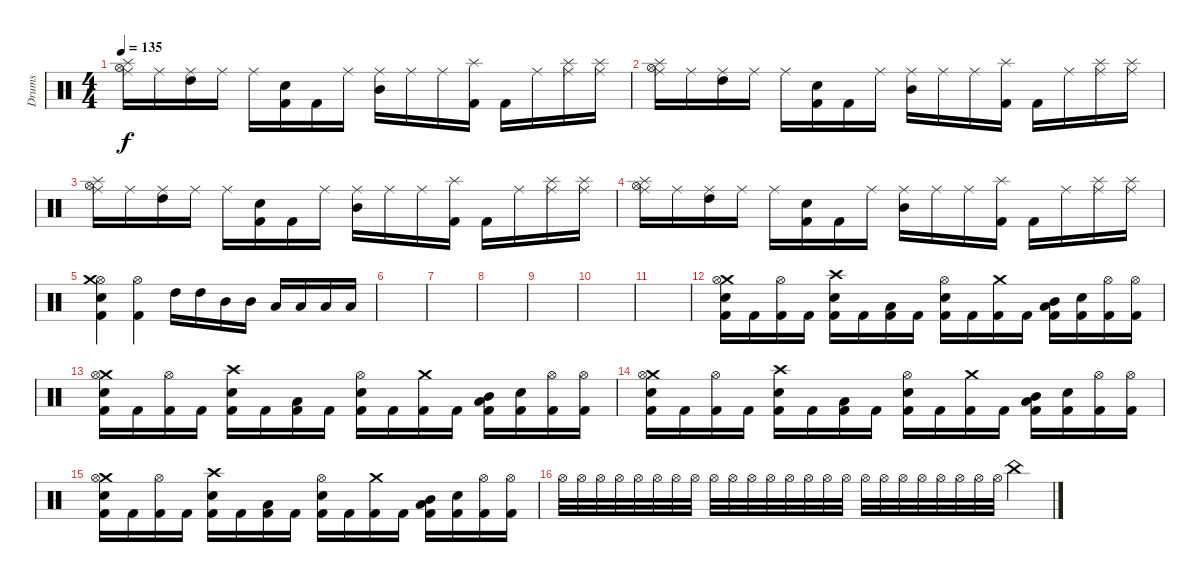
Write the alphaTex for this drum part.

\track ("Drums" "Drums") {instrument percussion}
\staff {score}
\articulation defaults
\ts (4 4)
\tempo 135
\clef neutral
\ks c
("Ride (middle)" "Hi-Hat (open)" "Splash (hit)").16{dy f} "Ride (middle)".16 ("Ride (middle)" "High Tom (hit)").16 "Ride (middle)".16 "Ride (middle)".16 ("Kick (hit) 2" "Electric Snare (hit)").16 "Kick (hit) 2".16 "Ride (middle)".16 ("Ride (middle)" "Mid Tom (hit)").16 "Ride (middle)".16 "Ride (middle)".16 ("Kick (hit) 2" "Splash (hit)").16 "Kick (hit) 2".16 "Ride (middle)".16 ("Ride (middle)" "Splash (hit)").16 ("Ride (middle)" "Splash (hit)").16 |
("Ride (middle)" "Hi-Hat (open)" "Splash (hit)").16 "Ride (middle)".16 ("Ride (middle)" "High Tom (hit)").16 "Ride (middle)".16 "Ride (middle)".16 ("Kick (hit) 2" "Electric Snare (hit)").16 "Kick (hit) 2".16 "Ride (middle)".16 ("Ride (middle)" "Mid Tom (hit)").16 "Ride (middle)".16 "Ride (middle)".16 ("Kick (hit) 2" "Splash (hit)").16 "Kick (hit) 2".16 "Ride (middle)".16 ("Ride (middle)" "Splash (hit)").16 ("Ride (middle)" "Splash (hit)").16 |
("Ride (middle)" "Hi-Hat (open)" "Splash (hit)").16 "Ride (middle)".16 ("Ride (middle)" "High Tom (hit)").16 "Ride (middle)".16 "Ride (middle)".16 ("Kick (hit) 2" "Electric Snare (hit)").16 "Kick (hit) 2".16 "Ride (middle)".16 ("Ride (middle)" "Mid Tom (hit)").16 "Ride (middle)".16 "Ride (middle)".16 ("Kick (hit) 2" "Splash (hit)").16 "Kick (hit) 2".16 "Ride (middle)".16 ("Ride (middle)" "Splash (hit)").16 ("Ride (middle)" "Splash (hit)").16 |
("Ride (middle)" "Hi-Hat (open)" "Splash (hit)").16 "Ride (middle)".16 ("Ride (middle)" "High Tom (hit)").16 "Ride (middle)".16 "Ride (middle)".16 ("Kick (hit) 2" "Electric Snare (hit)").16 "Kick (hit) 2".16 "Ride (middle)".16 ("Ride (middle)" "Mid Tom (hit)").16 "Ride (middle)".16 "Ride (middle)".16 ("Kick (hit) 2" "Splash (hit)").16 "Kick (hit) 2".16 "Ride (middle)".16 ("Ride (middle)" "Splash (hit)").16 ("Ride (middle)" "Splash (hit)").16 |
("Electric Snare (hit)" "Hi-Hat (open)" "Crash medium (hit)" "Kick (hit) 2").4 ("Kick (hit) 2" "Hi-Hat (open)").4 "High Tom (hit)".16 "High Tom (hit)".16 "Mid Tom (hit)".16 "Mid Tom (hit)".16 "Low Tom (hit)".16 "Low Tom (hit)".16 "Low Floor Tom (hit)".16 "Low Floor Tom (hit)".16 |
|
|
|
|
|
|
("Kick (hit) 2" "Crash medium (hit)" "Hi-Hat (open)" "Electric Snare (hit)").16 "Kick (hit) 2".16 ("Kick (hit) 2" "Hi-Hat (open)").16 "Kick (hit) 2".16 ("Kick (hit) 2" "Crash high (hit)" "Electric Snare (hit)").16 "Kick (hit) 2".16 ("Kick (hit) 2" "Low Floor Tom (hit)").16 "Kick (hit) 2".16 ("Kick (hit) 2" "Hi-Hat (open)" "Electric Snare (hit)").16 "Kick (hit) 2".16 ("Kick (hit) 2" "Crash medium (hit)").16 "Kick (hit) 2".16 ("Kick (hit) 2" "Low Floor Tom (hit)" "Mid Tom (hit)").16 ("Kick (hit) 2" "Electric Snare (hit)").16 ("Kick (hit) 2" "Hi-Hat (open)").16 ("Kick (hit) 2" "Hi-Hat (open)").16 |
("Kick (hit) 2" "Crash medium (hit)" "Hi-Hat (open)" "Electric Snare (hit)").16 "Kick (hit) 2".16 ("Kick (hit) 2" "Hi-Hat (open)").16 "Kick (hit) 2".16 ("Kick (hit) 2" "Crash high (hit)" "Electric Snare (hit)").16 "Kick (hit) 2".16 ("Kick (hit) 2" "Low Floor Tom (hit)").16 "Kick (hit) 2".16 ("Kick (hit) 2" "Hi-Hat (open)" "Electric Snare (hit)").16 "Kick (hit) 2".16 ("Kick (hit) 2" "Crash medium (hit)").16 "Kick (hit) 2".16 ("Kick (hit) 2" "Low Floor Tom (hit)" "Mid Tom (hit)").16 ("Kick (hit) 2" "Electric Snare (hit)").16 ("Kick (hit) 2" "Hi-Hat (open)").16 ("Kick (hit) 2" "Hi-Hat (open)").16 |
("Kick (hit) 2" "Crash medium (hit)" "Hi-Hat (open)" "Electric Snare (hit)").16 "Kick (hit) 2".16 ("Kick (hit) 2" "Hi-Hat (open)").16 "Kick (hit) 2".16 ("Kick (hit) 2" "Crash high (hit)" "Electric Snare (hit)").16 "Kick (hit) 2".16 ("Kick (hit) 2" "Low Floor Tom (hit)").16 "Kick (hit) 2".16 ("Kick (hit) 2" "Hi-Hat (open)" "Electric Snare (hit)").16 "Kick (hit) 2".16 ("Kick (hit) 2" "Crash medium (hit)").16 "Kick (hit) 2".16 ("Kick (hit) 2" "Low Floor Tom (hit)" "Mid Tom (hit)").16 ("Kick (hit) 2" "Electric Snare (hit)").16 ("Kick (hit) 2" "Hi-Hat (open)").16 ("Kick (hit) 2" "Hi-Hat (open)").16 |
("Kick (hit) 2" "Crash medium (hit)" "Hi-Hat (open)" "Electric Snare (hit)").16 "Kick (hit) 2".16 ("Kick (hit) 2" "Hi-Hat (open)").16 "Kick (hit) 2".16 ("Kick (hit) 2" "Crash high (hit)" "Electric Snare (hit)").16 "Kick (hit) 2".16 ("Kick (hit) 2" "Low Floor Tom (hit)").16 "Kick (hit) 2".16 ("Kick (hit) 2" "Hi-Hat (open)" "Electric Snare (hit)").16 "Kick (hit) 2".16 ("Kick (hit) 2" "Crash medium (hit)").16 "Kick (hit) 2".16 ("Kick (hit) 2" "Low Floor Tom (hit)" "Mid Tom (hit)").16 ("Kick (hit) 2" "Electric Snare (hit)").16 ("Kick (hit) 2" "Hi-Hat (open)").16 ("Kick (hit) 2" "Hi-Hat (open)").16 |
"Hi-Hat (open)".32 "Hi-Hat (open)".32 "Hi-Hat (open)".32 "Hi-Hat (open)".32 "Hi-Hat (open)".32 "Hi-Hat (open)".32 "Hi-Hat (open)".32 "Hi-Hat (open)".32 "Hi-Hat (open)".32 "Hi-Hat (open)".32 "Hi-Hat (open)".32 "Hi-Hat (open)".32 "Hi-Hat (open)".32 "Hi-Hat (open)".32 "Hi-Hat (open)".32 "Hi-Hat (open)".32 "Hi-Hat (open)".32 "Hi-Hat (open)".32 "Hi-Hat (open)".32 "Hi-Hat (open)".32 "Hi-Hat (open)".32 "Hi-Hat (open)".32 "Hi-Hat (open)".32 "Hi-Hat (open)".32 "China (hit)".4
